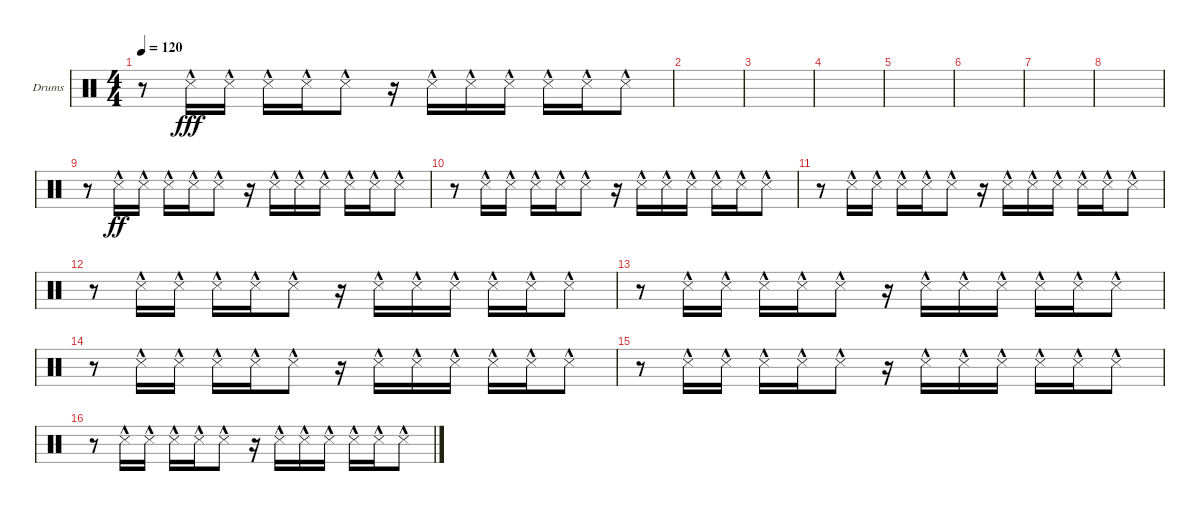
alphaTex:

\defaultSystemsLayout 4
\bracketExtendMode nobrackets
\firstSystemTrackNameOrientation horizontal
\otherSystemsTrackNameOrientation horizontal
\track ("Drumkit" "Drums") {instrument percussion}
\staff {score}
\articulation defaults
\ts (4 4)
\tempo 120
\clef neutral
\ks c
r.8{dy fff} "Snare (side stick) 3"{hac}.16 "Snare (side stick) 3"{hac}.16 "Snare (side stick) 3"{hac}.16 "Snare (side stick) 3"{hac}.16 "Snare (side stick) 3"{hac}.8 r.16 "Snare (side stick) 3"{hac}.16 "Snare (side stick) 3"{hac}.16 "Snare (side stick) 3"{hac}.16 "Snare (side stick) 3"{hac}.16 "Snare (side stick) 3"{hac}.16 "Snare (side stick) 3"{hac}.8 |
|
|
|
|
|
|
|
r.8 "Snare (side stick) 3"{hac}.16{dy ff} "Snare (side stick) 3"{hac}.16 "Snare (side stick) 3"{hac}.16 "Snare (side stick) 3"{hac}.16 "Snare (side stick) 3"{hac}.8 r.16 "Snare (side stick) 3"{hac}.16 "Snare (side stick) 3"{hac}.16 "Snare (side stick) 3"{hac}.16 "Snare (side stick) 3"{hac}.16 "Snare (side stick) 3"{hac}.16 "Snare (side stick) 3"{hac}.8 |
r.8 "Snare (side stick) 3"{hac}.16 "Snare (side stick) 3"{hac}.16 "Snare (side stick) 3"{hac}.16 "Snare (side stick) 3"{hac}.16 "Snare (side stick) 3"{hac}.8 r.16 "Snare (side stick) 3"{hac}.16 "Snare (side stick) 3"{hac}.16 "Snare (side stick) 3"{hac}.16 "Snare (side stick) 3"{hac}.16 "Snare (side stick) 3"{hac}.16 "Snare (side stick) 3"{hac}.8 |
r.8 "Snare (side stick) 3"{hac}.16 "Snare (side stick) 3"{hac}.16 "Snare (side stick) 3"{hac}.16 "Snare (side stick) 3"{hac}.16 "Snare (side stick) 3"{hac}.8 r.16 "Snare (side stick) 3"{hac}.16 "Snare (side stick) 3"{hac}.16 "Snare (side stick) 3"{hac}.16 "Snare (side stick) 3"{hac}.16 "Snare (side stick) 3"{hac}.16 "Snare (side stick) 3"{hac}.8 |
r.8 "Snare (side stick) 3"{hac}.16 "Snare (side stick) 3"{hac}.16 "Snare (side stick) 3"{hac}.16 "Snare (side stick) 3"{hac}.16 "Snare (side stick) 3"{hac}.8 r.16 "Snare (side stick) 3"{hac}.16 "Snare (side stick) 3"{hac}.16 "Snare (side stick) 3"{hac}.16 "Snare (side stick) 3"{hac}.16 "Snare (side stick) 3"{hac}.16 "Snare (side stick) 3"{hac}.8 |
r.8 "Snare (side stick) 3"{hac}.16 "Snare (side stick) 3"{hac}.16 "Snare (side stick) 3"{hac}.16 "Snare (side stick) 3"{hac}.16 "Snare (side stick) 3"{hac}.8 r.16 "Snare (side stick) 3"{hac}.16 "Snare (side stick) 3"{hac}.16 "Snare (side stick) 3"{hac}.16 "Snare (side stick) 3"{hac}.16 "Snare (side stick) 3"{hac}.16 "Snare (side stick) 3"{hac}.8 |
r.8 "Snare (side stick) 3"{hac}.16 "Snare (side stick) 3"{hac}.16 "Snare (side stick) 3"{hac}.16 "Snare (side stick) 3"{hac}.16 "Snare (side stick) 3"{hac}.8 r.16 "Snare (side stick) 3"{hac}.16 "Snare (side stick) 3"{hac}.16 "Snare (side stick) 3"{hac}.16 "Snare (side stick) 3"{hac}.16 "Snare (side stick) 3"{hac}.16 "Snare (side stick) 3"{hac}.8 |
r.8 "Snare (side stick) 3"{hac}.16 "Snare (side stick) 3"{hac}.16 "Snare (side stick) 3"{hac}.16 "Snare (side stick) 3"{hac}.16 "Snare (side stick) 3"{hac}.8 r.16 "Snare (side stick) 3"{hac}.16 "Snare (side stick) 3"{hac}.16 "Snare (side stick) 3"{hac}.16 "Snare (side stick) 3"{hac}.16 "Snare (side stick) 3"{hac}.16 "Snare (side stick) 3"{hac}.8 |
r.8 "Snare (side stick) 3"{hac}.16 "Snare (side stick) 3"{hac}.16 "Snare (side stick) 3"{hac}.16 "Snare (side stick) 3"{hac}.16 "Snare (side stick) 3"{hac}.8 r.16 "Snare (side stick) 3"{hac}.16 "Snare (side stick) 3"{hac}.16 "Snare (side stick) 3"{hac}.16 "Snare (side stick) 3"{hac}.16 "Snare (side stick) 3"{hac}.16 "Snare (side stick) 3"{hac}.8
